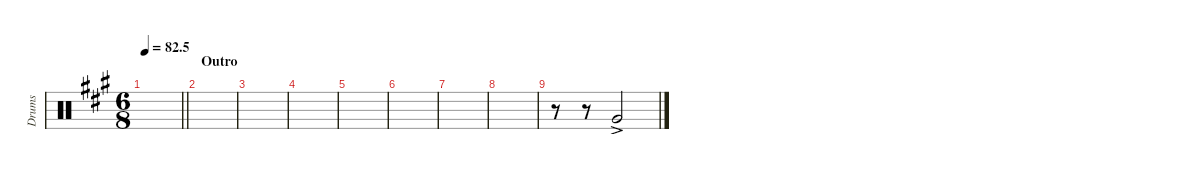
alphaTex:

\defaultSystemsLayout 4
\hideDynamics
\bracketExtendMode nobrackets
\otherSystemsTrackNameOrientation horizontal
\track ("Tom 04" "Drums") {instrument percussion}
\staff {score}
\articulation defaults
\ts (6 8)
\tempo
82.5
\accidentals auto
\clef neutral
\ottava regular
\simile none
\scale
0.333333
\barLineRight lightlight
\ks a
|
\section ("" "Outro")
\scale
0.333333 |
\scale
0.333333 |
\scale
0.333333 |
\scale
0.333333 |
\scale
0.333333 |
\scale
0.333333 |
\scale
0.333333 |
\scale
0.333333 r.8 r.8 "Very Low Tom (hit)"{ac acc forcenatural}.2 |
\scale
0.333333 |
\scale
0.333333 |
\scale
0.333333
